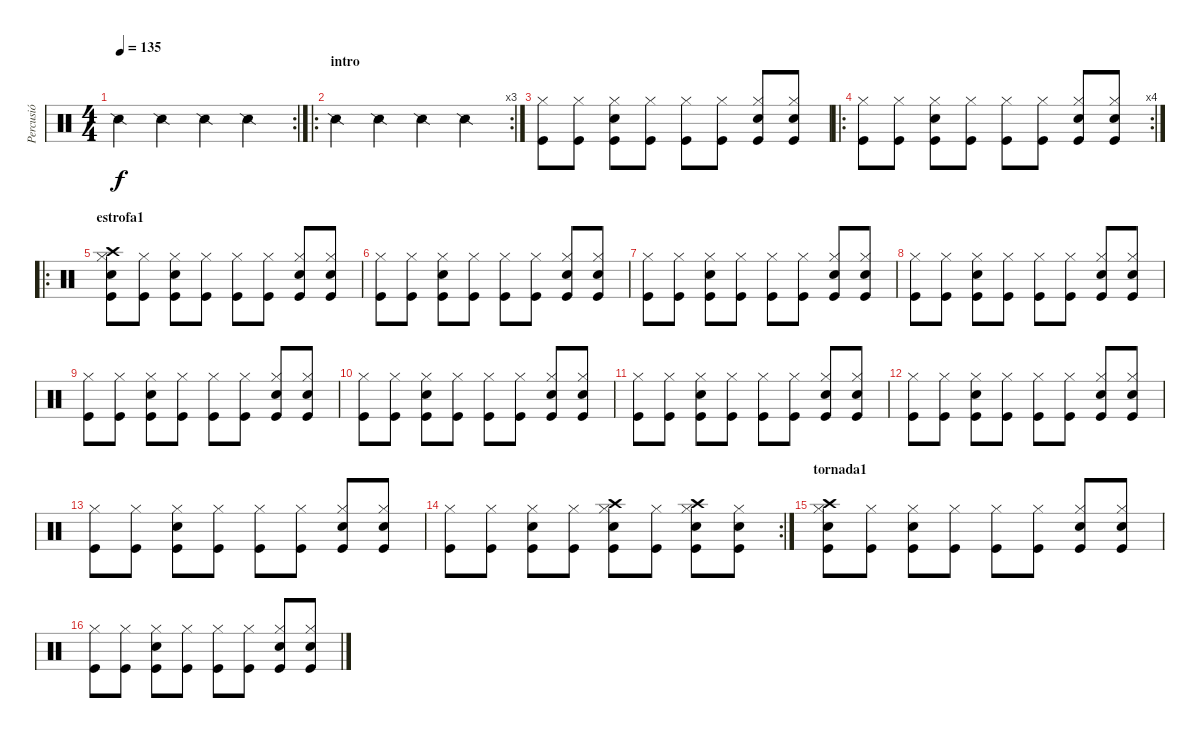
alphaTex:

\track ("Percusió" "Percusió") {instrument percussion}
\staff {score}
\articulation defaults
\rc 2
\ts (4 4)
\tempo 135
\clef neutral
\ks c "Snare (side stick) 2".4{dy f} "Snare (side stick) 2".4 "Snare (side stick) 2".4 "Snare (side stick) 2".4
|
\ro
\rc 3
\section ("" "intro")
"Snare (side stick) 2".4 "Snare (side stick) 2".4 "Snare (side stick) 2".4 "Snare (side stick) 2".4 |
("Kick (hit)" "Hi-Hat (closed)").8 ("Kick (hit)" "Hi-Hat (closed)").8 ("Kick (hit)" "Hi-Hat (closed)" "Snare (hit) 2").8 ("Kick (hit)" "Hi-Hat (closed)").8 ("Kick (hit)" "Hi-Hat (closed)").8 ("Kick (hit)" "Hi-Hat (closed)").8 ("Kick (hit)" "Hi-Hat (closed)" "Snare (hit) 2").8 ("Kick (hit)" "Hi-Hat (closed)" "Snare (hit) 2").8 |
\ro
\rc 4
("Kick (hit)" "Hi-Hat (closed)").8 ("Kick (hit)" "Hi-Hat (closed)").8 ("Kick (hit)" "Hi-Hat (closed)" "Snare (hit) 2").8 ("Kick (hit)" "Hi-Hat (closed)").8 ("Kick (hit)" "Hi-Hat (closed)").8 ("Kick (hit)" "Hi-Hat (closed)").8 ("Kick (hit)" "Hi-Hat (closed)" "Snare (hit) 2").8 ("Kick (hit)" "Hi-Hat (closed)" "Snare (hit) 2").8 |
\ro
\section ("" "estrofa1")
("Kick (hit)" "Hi-Hat (closed)" "Snare (hit) 2" "Crash high (hit)").8 ("Kick (hit)" "Hi-Hat (closed)").8 ("Kick (hit)" "Hi-Hat (closed)" "Snare (hit) 2").8 ("Kick (hit)" "Hi-Hat (closed)").8 ("Kick (hit)" "Hi-Hat (closed)").8 ("Kick (hit)" "Hi-Hat (closed)").8 ("Kick (hit)" "Hi-Hat (closed)" "Snare (hit) 2").8 ("Kick (hit)" "Hi-Hat (closed)" "Snare (hit) 2").8 |
("Kick (hit)" "Hi-Hat (closed)").8 ("Kick (hit)" "Hi-Hat (closed)").8 ("Kick (hit)" "Hi-Hat (closed)" "Snare (hit) 2").8 ("Kick (hit)" "Hi-Hat (closed)").8 ("Kick (hit)" "Hi-Hat (closed)").8 ("Kick (hit)" "Hi-Hat (closed)").8 ("Kick (hit)" "Hi-Hat (closed)" "Snare (hit) 2").8 ("Kick (hit)" "Hi-Hat (closed)" "Snare (hit) 2").8 |
("Kick (hit)" "Hi-Hat (closed)").8 ("Kick (hit)" "Hi-Hat (closed)").8 ("Kick (hit)" "Hi-Hat (closed)" "Snare (hit) 2").8 ("Kick (hit)" "Hi-Hat (closed)").8 ("Kick (hit)" "Hi-Hat (closed)").8 ("Kick (hit)" "Hi-Hat (closed)").8 ("Kick (hit)" "Hi-Hat (closed)" "Snare (hit) 2").8 ("Kick (hit)" "Hi-Hat (closed)" "Snare (hit) 2").8 |
("Kick (hit)" "Hi-Hat (closed)").8 ("Kick (hit)" "Hi-Hat (closed)").8 ("Kick (hit)" "Hi-Hat (closed)" "Snare (hit) 2").8 ("Kick (hit)" "Hi-Hat (closed)").8 ("Kick (hit)" "Hi-Hat (closed)").8 ("Kick (hit)" "Hi-Hat (closed)").8 ("Kick (hit)" "Hi-Hat (closed)" "Snare (hit) 2").8 ("Kick (hit)" "Hi-Hat (closed)" "Snare (hit) 2").8 |
("Kick (hit)" "Hi-Hat (closed)").8 ("Kick (hit)" "Hi-Hat (closed)").8 ("Kick (hit)" "Hi-Hat (closed)" "Snare (hit) 2").8 ("Kick (hit)" "Hi-Hat (closed)").8 ("Kick (hit)" "Hi-Hat (closed)").8 ("Kick (hit)" "Hi-Hat (closed)").8 ("Kick (hit)" "Hi-Hat (closed)" "Snare (hit) 2").8 ("Kick (hit)" "Hi-Hat (closed)" "Snare (hit) 2").8 |
("Kick (hit)" "Hi-Hat (closed)").8 ("Kick (hit)" "Hi-Hat (closed)").8 ("Kick (hit)" "Hi-Hat (closed)" "Snare (hit) 2").8 ("Kick (hit)" "Hi-Hat (closed)").8 ("Kick (hit)" "Hi-Hat (closed)").8 ("Kick (hit)" "Hi-Hat (closed)").8 ("Kick (hit)" "Hi-Hat (closed)" "Snare (hit) 2").8 ("Kick (hit)" "Hi-Hat (closed)" "Snare (hit) 2").8 |
("Kick (hit)" "Hi-Hat (closed)").8 ("Kick (hit)" "Hi-Hat (closed)").8 ("Kick (hit)" "Hi-Hat (closed)" "Snare (hit) 2").8 ("Kick (hit)" "Hi-Hat (closed)").8 ("Kick (hit)" "Hi-Hat (closed)").8 ("Kick (hit)" "Hi-Hat (closed)").8 ("Kick (hit)" "Hi-Hat (closed)" "Snare (hit) 2").8 ("Kick (hit)" "Hi-Hat (closed)" "Snare (hit) 2").8 |
("Kick (hit)" "Hi-Hat (closed)").8 ("Kick (hit)" "Hi-Hat (closed)").8 ("Kick (hit)" "Hi-Hat (closed)" "Snare (hit) 2").8 ("Kick (hit)" "Hi-Hat (closed)").8 ("Kick (hit)" "Hi-Hat (closed)").8 ("Kick (hit)" "Hi-Hat (closed)").8 ("Kick (hit)" "Hi-Hat (closed)" "Snare (hit) 2").8 ("Kick (hit)" "Hi-Hat (closed)" "Snare (hit) 2").8 |
("Kick (hit)" "Hi-Hat (closed)").8 ("Kick (hit)" "Hi-Hat (closed)").8 ("Kick (hit)" "Hi-Hat (closed)" "Snare (hit) 2").8 ("Kick (hit)" "Hi-Hat (closed)").8 ("Kick (hit)" "Hi-Hat (closed)").8 ("Kick (hit)" "Hi-Hat (closed)").8 ("Kick (hit)" "Hi-Hat (closed)" "Snare (hit) 2").8 ("Kick (hit)" "Hi-Hat (closed)" "Snare (hit) 2").8 |
\rc 2
("Kick (hit)" "Hi-Hat (closed)").8 ("Kick (hit)" "Hi-Hat (closed)").8 ("Kick (hit)" "Hi-Hat (closed)" "Snare (hit) 2").8 ("Kick (hit)" "Hi-Hat (closed)").8 ("Kick (hit)" "Hi-Hat (closed)" "Snare (hit) 2" "Crash high (hit)").8 ("Kick (hit)" "Hi-Hat (closed)").8 ("Kick (hit)" "Hi-Hat (closed)" "Snare (hit) 2" "Crash high (hit)").8 ("Kick (hit)" "Hi-Hat (closed)" "Snare (hit) 2").8 |
\section ("" "tornada1")
("Kick (hit)" "Hi-Hat (closed)" "Snare (hit) 2" "Crash high (hit)").8 ("Kick (hit)" "Hi-Hat (closed)").8 ("Kick (hit)" "Hi-Hat (closed)" "Snare (hit) 2").8 ("Kick (hit)" "Hi-Hat (closed)").8 ("Kick (hit)" "Hi-Hat (closed)").8 ("Kick (hit)" "Hi-Hat (closed)").8 ("Kick (hit)" "Hi-Hat (closed)" "Snare (hit) 2").8 ("Kick (hit)" "Hi-Hat (closed)" "Snare (hit) 2").8 |
("Kick (hit)" "Hi-Hat (closed)").8 ("Kick (hit)" "Hi-Hat (closed)").8 ("Kick (hit)" "Hi-Hat (closed)" "Snare (hit) 2").8 ("Kick (hit)" "Hi-Hat (closed)").8 ("Kick (hit)" "Hi-Hat (closed)").8 ("Kick (hit)" "Hi-Hat (closed)").8 ("Kick (hit)" "Hi-Hat (closed)" "Snare (hit) 2").8 ("Kick (hit)" "Hi-Hat (closed)" "Snare (hit) 2").8
